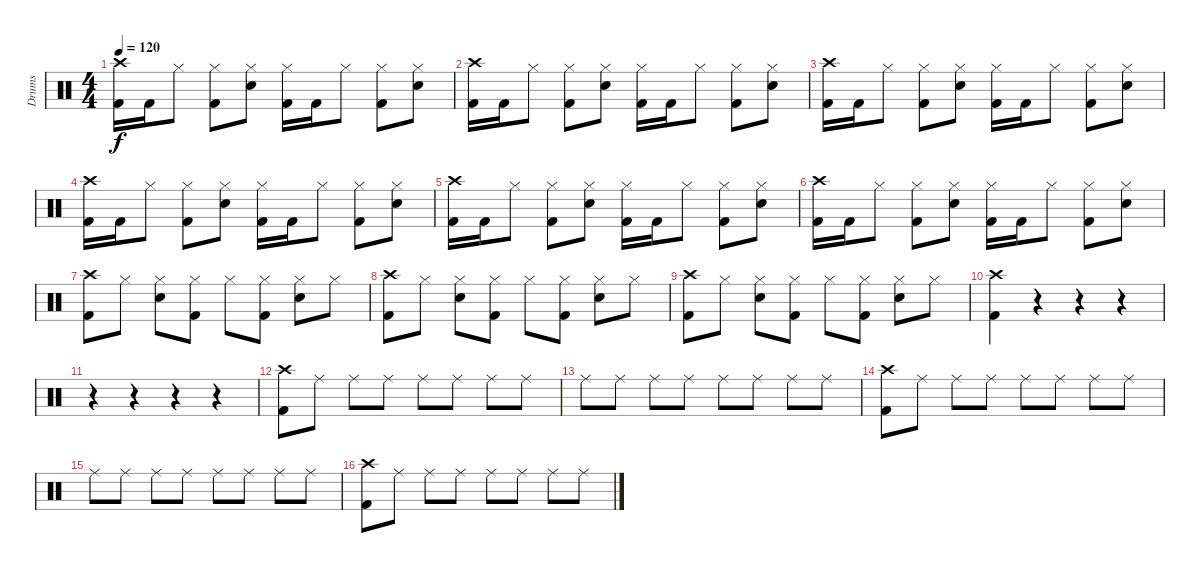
\track ("Drums" "Drums") {instrument percussion}
\staff {score}
\articulation defaults
\ts (4 4)
\tempo 120
\clef neutral
\ks c
("Crash high (hit)" "Kick (hit) 2").16{dy f} "Kick (hit) 2".16 "Hi-Hat (closed)".8 ("Hi-Hat (closed)" "Kick (hit) 2").8 ("Hi-Hat (closed)" "Snare (hit) 2").8 ("Hi-Hat (closed)" "Kick (hit) 2").16 "Kick (hit) 2".16 "Hi-Hat (closed)".8 ("Hi-Hat (closed)" "Kick (hit) 2").8 ("Hi-Hat (closed)" "Snare (hit) 2").8 |
("Crash high (hit)" "Kick (hit) 2").16 "Kick (hit) 2".16 "Hi-Hat (closed)".8 ("Hi-Hat (closed)" "Kick (hit) 2").8 ("Hi-Hat (closed)" "Snare (hit) 2").8 ("Hi-Hat (closed)" "Kick (hit) 2").16 "Kick (hit) 2".16 "Hi-Hat (closed)".8 ("Hi-Hat (closed)" "Kick (hit) 2").8 ("Hi-Hat (closed)" "Snare (hit) 2").8 |
("Crash high (hit)" "Kick (hit) 2").16 "Kick (hit) 2".16 "Hi-Hat (closed)".8 ("Hi-Hat (closed)" "Kick (hit) 2").8 ("Hi-Hat (closed)" "Snare (hit) 2").8 ("Hi-Hat (closed)" "Kick (hit) 2").16 "Kick (hit) 2".16 "Hi-Hat (closed)".8 ("Hi-Hat (closed)" "Kick (hit) 2").8 ("Hi-Hat (closed)" "Snare (hit) 2").8 |
("Crash high (hit)" "Kick (hit) 2").16 "Kick (hit) 2".16 "Hi-Hat (closed)".8 ("Hi-Hat (closed)" "Kick (hit) 2").8 ("Hi-Hat (closed)" "Snare (hit) 2").8 ("Hi-Hat (closed)" "Kick (hit) 2").16 "Kick (hit) 2".16 "Hi-Hat (closed)".8 ("Hi-Hat (closed)" "Kick (hit) 2").8 ("Hi-Hat (closed)" "Snare (hit) 2").8 |
("Crash high (hit)" "Kick (hit) 2").16 "Kick (hit) 2".16 "Hi-Hat (closed)".8 ("Hi-Hat (closed)" "Kick (hit) 2").8 ("Hi-Hat (closed)" "Snare (hit) 2").8 ("Hi-Hat (closed)" "Kick (hit) 2").16 "Kick (hit) 2".16 "Hi-Hat (closed)".8 ("Hi-Hat (closed)" "Kick (hit) 2").8 ("Hi-Hat (closed)" "Snare (hit) 2").8 |
("Crash high (hit)" "Kick (hit) 2").16 "Kick (hit) 2".16 "Hi-Hat (closed)".8 ("Hi-Hat (closed)" "Kick (hit) 2").8 ("Hi-Hat (closed)" "Snare (hit) 2").8 ("Hi-Hat (closed)" "Kick (hit) 2").16 "Kick (hit) 2".16 "Hi-Hat (closed)".8 ("Hi-Hat (closed)" "Kick (hit) 2").8 ("Hi-Hat (closed)" "Snare (hit) 2").8 |
("Crash high (hit)" "Kick (hit) 2").8 "Hi-Hat (closed)".8 ("Hi-Hat (closed)" "Snare (hit) 2").8 ("Hi-Hat (closed)" "Kick (hit) 2").8 "Hi-Hat (closed)".8 ("Hi-Hat (closed)" "Kick (hit) 2").8 ("Hi-Hat (closed)" "Snare (hit) 2").8 "Hi-Hat (closed)".8 |
("Crash high (hit)" "Kick (hit) 2").8 "Hi-Hat (closed)".8 ("Hi-Hat (closed)" "Snare (hit) 2").8 ("Hi-Hat (closed)" "Kick (hit) 2").8 "Hi-Hat (closed)".8 ("Hi-Hat (closed)" "Kick (hit) 2").8 ("Hi-Hat (closed)" "Snare (hit) 2").8 "Hi-Hat (closed)".8 |
("Crash high (hit)" "Kick (hit) 2").8 "Hi-Hat (closed)".8 ("Hi-Hat (closed)" "Snare (hit) 2").8 ("Hi-Hat (closed)" "Kick (hit) 2").8 "Hi-Hat (closed)".8 ("Hi-Hat (closed)" "Kick (hit) 2").8 ("Hi-Hat (closed)" "Snare (hit) 2").8 "Hi-Hat (closed)".8 |
("Crash high (hit)" "Kick (hit) 2").4 r.4 r.4 r.4 |
r.4 r.4 r.4 r.4 |
("Crash high (hit)" "Kick (hit) 2").8 "Ride (middle)".8 "Ride (middle)".8 "Ride (middle)".8 "Ride (middle)".8 "Ride (middle)".8 "Ride (middle)".8 "Ride (middle)".8 |
"Ride (middle)".8 "Ride (middle)".8 "Ride (middle)".8 "Ride (middle)".8 "Ride (middle)".8 "Ride (middle)".8 "Ride (middle)".8 "Ride (middle)".8 |
("Crash high (hit)" "Kick (hit) 2").8 "Ride (middle)".8 "Ride (middle)".8 "Ride (middle)".8 "Ride (middle)".8 "Ride (middle)".8 "Ride (middle)".8 "Ride (middle)".8 |
"Ride (middle)".8 "Ride (middle)".8 "Ride (middle)".8 "Ride (middle)".8 "Ride (middle)".8 "Ride (middle)".8 "Ride (middle)".8 "Ride (middle)".8 |
("Crash high (hit)" "Kick (hit) 2").8 "Ride (middle)".8 "Ride (middle)".8 "Ride (middle)".8 "Ride (middle)".8 "Ride (middle)".8 "Ride (middle)".8 "Ride (middle)".8
